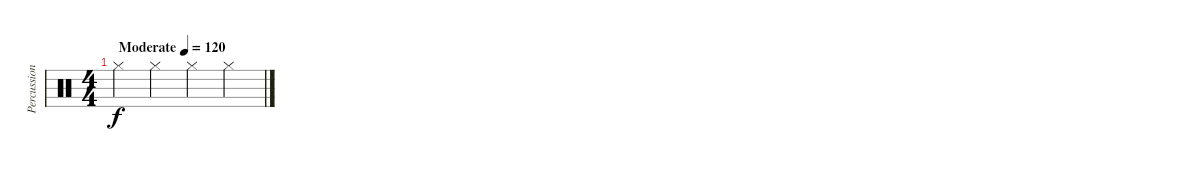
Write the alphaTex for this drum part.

\track ("Percussion" "Percussion") {instrument percussion}
\staff {score}
\articulation defaults
\ts (4 4)
\tempo (120 "Moderate")
\clef neutral
\ks c "Hi-Hat (closed)".4{dy f} "Hi-Hat (closed)".4 "Hi-Hat (closed)".4 "Hi-Hat (closed)".4
